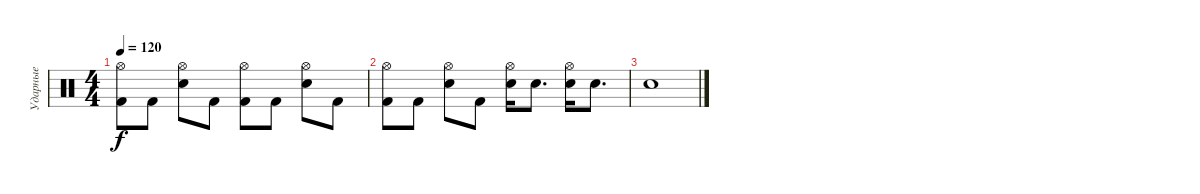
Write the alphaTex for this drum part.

\track ("Ударные" "Ударные") {instrument percussion}
\staff {score}
\articulation defaults
\ts (4 4)
\tempo 120
\clef neutral
\ks c
("Hi-Hat (open)" "Kick (hit) 2").8{dy f} "Kick (hit) 2".8 ("Hi-Hat (open)" "Snare (hit) 2").8 "Kick (hit) 2".8 ("Hi-Hat (open)" "Kick (hit) 2").8 "Kick (hit) 2".8 ("Hi-Hat (open)" "Snare (hit) 2").8 "Kick (hit) 2".8 |
("Hi-Hat (open)" "Kick (hit) 2").8 "Kick (hit) 2".8 ("Hi-Hat (open)" "Snare (hit) 2").8 "Kick (hit) 2".8 ("Hi-Hat (open)" "Snare (hit) 2").16 "Snare (hit) 2".8{d} ("Hi-Hat (open)" "Snare (hit) 2").16 "Snare (hit) 2".8{d} |
"Snare (hit) 2".1
